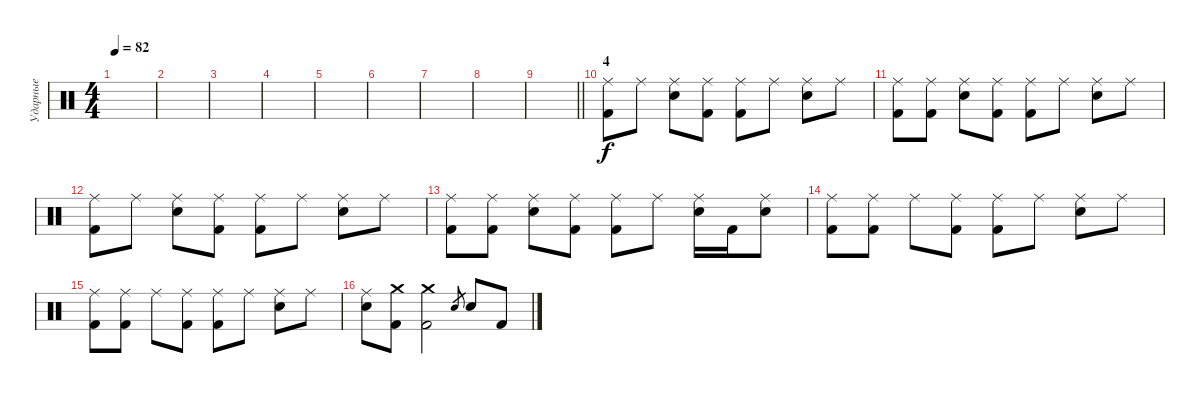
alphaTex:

\track ("Ударные" "Ударные") {mute instrument percussion}
\staff {score}
\articulation defaults
\ts (4 4)
\tempo 82
\clef neutral
\ks c
|
|
|
|
|
|
|
|
\barLineRight lightlight
|
\section ("" "4")
("Ride (middle)" "Kick (hit) 2").8{dy f} "Ride (middle)".8 ("Ride (middle)" "Snare (hit) 2").8 ("Ride (middle)" "Kick (hit) 2").8 ("Ride (middle)" "Kick (hit) 2").8 "Ride (middle)".8 ("Ride (middle)" "Snare (hit) 2").8 "Ride (middle)".8 |
("Ride (middle)" "Kick (hit) 2").8 ("Ride (middle)" "Kick (hit) 2").8 ("Ride (middle)" "Snare (hit) 2").8 ("Ride (middle)" "Kick (hit) 2").8 ("Ride (middle)" "Kick (hit) 2").8 "Ride (middle)".8 ("Ride (middle)" "Snare (hit) 2").8 "Ride (middle)".8 |
("Ride (middle)" "Kick (hit) 2").8 "Ride (middle)".8 ("Ride (middle)" "Snare (hit) 2").8 ("Ride (middle)" "Kick (hit) 2").8 ("Ride (middle)" "Kick (hit) 2").8 "Ride (middle)".8 ("Ride (middle)" "Snare (hit) 2").8 "Ride (middle)".8 |
("Ride (middle)" "Kick (hit) 2").8 ("Ride (middle)" "Kick (hit) 2").8 ("Ride (middle)" "Snare (hit) 2").8 ("Ride (middle)" "Kick (hit) 2").8 ("Ride (middle)" "Kick (hit) 2").8 "Ride (middle)".8 ("Ride (middle)" "Snare (hit) 2").16 "Kick (hit) 2".16 ("Ride (middle)" "Snare (hit) 2").8 |
("Ride (middle)" "Kick (hit) 2").8 ("Ride (middle)" "Kick (hit) 2").8 "Ride (middle)".8 ("Ride (middle)" "Kick (hit) 2").8 ("Ride (middle)" "Kick (hit) 2").8 "Ride (middle)".8 ("Ride (middle)" "Snare (hit) 2").8 "Ride (middle)".8 |
("Ride (middle)" "Kick (hit) 2").8 ("Ride (middle)" "Kick (hit) 2").8 "Ride (middle)".8 ("Ride (middle)" "Kick (hit) 2").8 ("Ride (middle)" "Kick (hit) 2").8 "Ride (middle)".8 ("Ride (middle)" "Snare (hit) 2").8 "Ride (middle)".8 |
("Ride (middle)" "Snare (hit) 2").8 ("Crash medium (hit)" "Kick (hit) 2").8 ("Crash medium (hit)" "Kick (hit) 2").2 "Snare (hit) 2".8{gr} "Snare (hit) 2".8 "Kick (hit) 2".8
